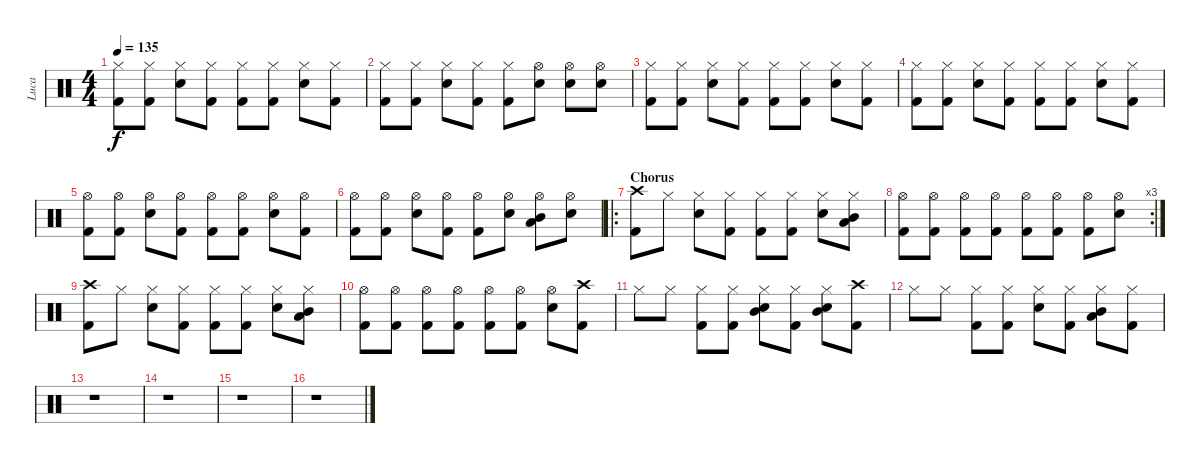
\track ("Luca" "Luca") {instrument percussion}
\staff {score}
\articulation defaults
\ts (4 4)
\tempo 135
\clef neutral
\ks c
("Hi-Hat (closed)" "Kick (hit) 2").8{dy f} ("Hi-Hat (closed)" "Kick (hit) 2").8 ("Hi-Hat (closed)" "Snare (hit) 2").8 ("Hi-Hat (closed)" "Kick (hit) 2").8 ("Hi-Hat (closed)" "Kick (hit) 2").8 ("Hi-Hat (closed)" "Kick (hit) 2").8 ("Hi-Hat (closed)" "Snare (hit) 2").8 ("Hi-Hat (closed)" "Kick (hit) 2").8 |
("Hi-Hat (closed)" "Kick (hit) 2").8 ("Hi-Hat (closed)" "Kick (hit) 2").8 ("Hi-Hat (closed)" "Snare (hit) 2").8 ("Hi-Hat (closed)" "Kick (hit) 2").8 ("Hi-Hat (closed)" "Kick (hit) 2").8 ("Hi-Hat (open)" "Snare (hit) 2").8 ("Hi-Hat (open)" "Snare (hit) 2").8 ("Hi-Hat (open)" "Snare (hit) 2").8 |
("Hi-Hat (closed)" "Kick (hit) 2").8 ("Hi-Hat (closed)" "Kick (hit) 2").8 ("Hi-Hat (closed)" "Snare (hit) 2").8 ("Hi-Hat (closed)" "Kick (hit) 2").8 ("Hi-Hat (closed)" "Kick (hit) 2").8 ("Hi-Hat (closed)" "Kick (hit) 2").8 ("Hi-Hat (closed)" "Snare (hit) 2").8 ("Hi-Hat (closed)" "Kick (hit) 2").8 |
("Hi-Hat (closed)" "Kick (hit) 2").8 ("Hi-Hat (closed)" "Kick (hit) 2").8 ("Hi-Hat (closed)" "Snare (hit) 2").8 ("Hi-Hat (closed)" "Kick (hit) 2").8 ("Hi-Hat (closed)" "Kick (hit) 2").8 ("Hi-Hat (closed)" "Kick (hit) 2").8 ("Hi-Hat (closed)" "Snare (hit) 2").8 ("Hi-Hat (closed)" "Kick (hit) 2").8 |
("Hi-Hat (open)" "Kick (hit) 2").8 ("Hi-Hat (open)" "Kick (hit) 2").8 ("Hi-Hat (open)" "Snare (hit) 2").8 ("Hi-Hat (open)" "Kick (hit) 2").8 ("Hi-Hat (open)" "Kick (hit) 2").8 ("Hi-Hat (open)" "Kick (hit) 2").8 ("Hi-Hat (open)" "Snare (hit) 2").8 ("Hi-Hat (open)" "Kick (hit) 2").8 |
("Hi-Hat (open)" "Kick (hit) 2").8 ("Hi-Hat (open)" "Kick (hit) 2").8 ("Hi-Hat (open)" "Snare (hit) 2").8 ("Hi-Hat (open)" "Kick (hit) 2").8 ("Hi-Hat (open)" "Kick (hit) 2").8 ("Hi-Hat (open)" "Snare (hit) 2").8 ("Hi-Hat (open)" "Mid Tom (hit)" "Low Tom (hit)").8 ("Hi-Hat (open)" "Snare (hit) 2").8 |
\ro
\section ("" "Chorus")
("Crash high (hit)" "Kick (hit) 2").8 "Hi-Hat (closed)".8 ("Hi-Hat (closed)" "Snare (hit) 2").8 ("Hi-Hat (closed)" "Kick (hit) 2").8 ("Hi-Hat (closed)" "Kick (hit) 2").8 ("Hi-Hat (closed)" "Kick (hit) 2").8 ("Hi-Hat (closed)" "Snare (hit) 2").8 ("Hi-Hat (closed)" "Mid Tom (hit)" "Low Tom (hit)").8 |
\rc 3
("Hi-Hat (open)" "Kick (hit) 2").8 ("Hi-Hat (open)" "Kick (hit) 2").8 ("Hi-Hat (open)" "Kick (hit) 2").8 ("Hi-Hat (open)" "Kick (hit) 2").8 ("Hi-Hat (open)" "Kick (hit) 2").8 ("Hi-Hat (open)" "Kick (hit) 2").8 ("Hi-Hat (open)" "Kick (hit) 2").8 ("Hi-Hat (open)" "Snare (hit) 2").8 |
("Crash high (hit)" "Kick (hit) 2").8 "Hi-Hat (closed)".8 ("Hi-Hat (closed)" "Snare (hit) 2").8 ("Hi-Hat (closed)" "Kick (hit) 2").8 ("Hi-Hat (closed)" "Kick (hit) 2").8 ("Hi-Hat (closed)" "Kick (hit) 2").8 ("Hi-Hat (closed)" "Snare (hit) 2").8 ("Hi-Hat (closed)" "Mid Tom (hit)" "Low Tom (hit)").8 |
("Hi-Hat (open)" "Kick (hit) 2").8 ("Hi-Hat (open)" "Kick (hit) 2").8 ("Hi-Hat (open)" "Kick (hit) 2").8 ("Hi-Hat (open)" "Kick (hit) 2").8 ("Hi-Hat (open)" "Kick (hit) 2").8 ("Hi-Hat (open)" "Kick (hit) 2").8 ("Hi-Hat (open)" "Snare (hit) 2").8 ("Crash high (hit)" "Kick (hit) 2").8 |
"Hi-Hat (closed)".8 "Hi-Hat (closed)".8 ("Hi-Hat (closed)" "Kick (hit) 2").8 ("Hi-Hat (closed)" "Kick (hit) 2").8 ("Hi-Hat (closed)" "Mid Tom (hit)" "Snare (hit) 2").8 ("Hi-Hat (closed)" "Kick (hit) 2").8 ("Hi-Hat (closed)" "Mid Tom (hit)" "Snare (hit) 2").8 ("Crash high (hit)" "Kick (hit) 2").8 |
"Hi-Hat (closed)".8 "Hi-Hat (closed)".8 ("Hi-Hat (closed)" "Kick (hit) 2").8 ("Hi-Hat (closed)" "Kick (hit) 2").8 ("Hi-Hat (closed)" "Snare (hit) 2").8 ("Hi-Hat (closed)" "Kick (hit) 2").8 ("Hi-Hat (closed)" "Mid Tom (hit)" "Low Tom (hit)").8 ("Hi-Hat (closed)" "Kick (hit) 2").8 |
r.1 |
r.1 |
r.1 |
r.1
